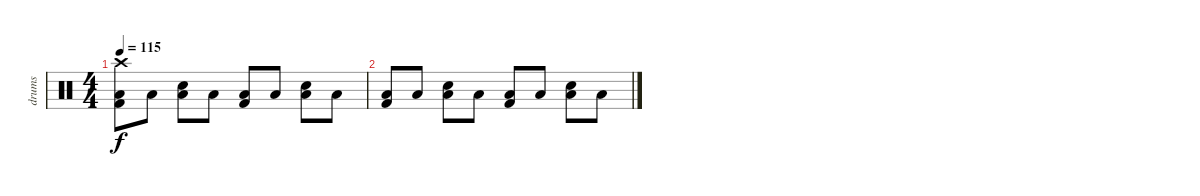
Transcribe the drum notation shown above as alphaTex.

\track ("drums" "drums") {instrument percussion}
\staff {score}
\articulation defaults
\ts (4 4)
\tempo 115
\clef neutral
\ks c
("Crash high (hit)" "Low Floor Tom (hit)" "Kick (hit) 2").8{dy f} "Low Floor Tom (hit)".8 ("Low Floor Tom (hit)" "Electric Snare (hit)").8 "Low Floor Tom (hit)".8 ("Low Floor Tom (hit)" "Kick (hit) 2").8 "Low Floor Tom (hit)".8 ("Low Floor Tom (hit)" "Electric Snare (hit)").8 "Low Floor Tom (hit)".8 |
("Low Floor Tom (hit)" "Kick (hit) 2").8 "Low Floor Tom (hit)".8 ("Low Floor Tom (hit)" "Electric Snare (hit)").8 "Low Floor Tom (hit)".8 ("Low Floor Tom (hit)" "Kick (hit) 2").8 "Low Floor Tom (hit)".8 ("Low Floor Tom (hit)" "Electric Snare (hit)").8 "Low Floor Tom (hit)".8
